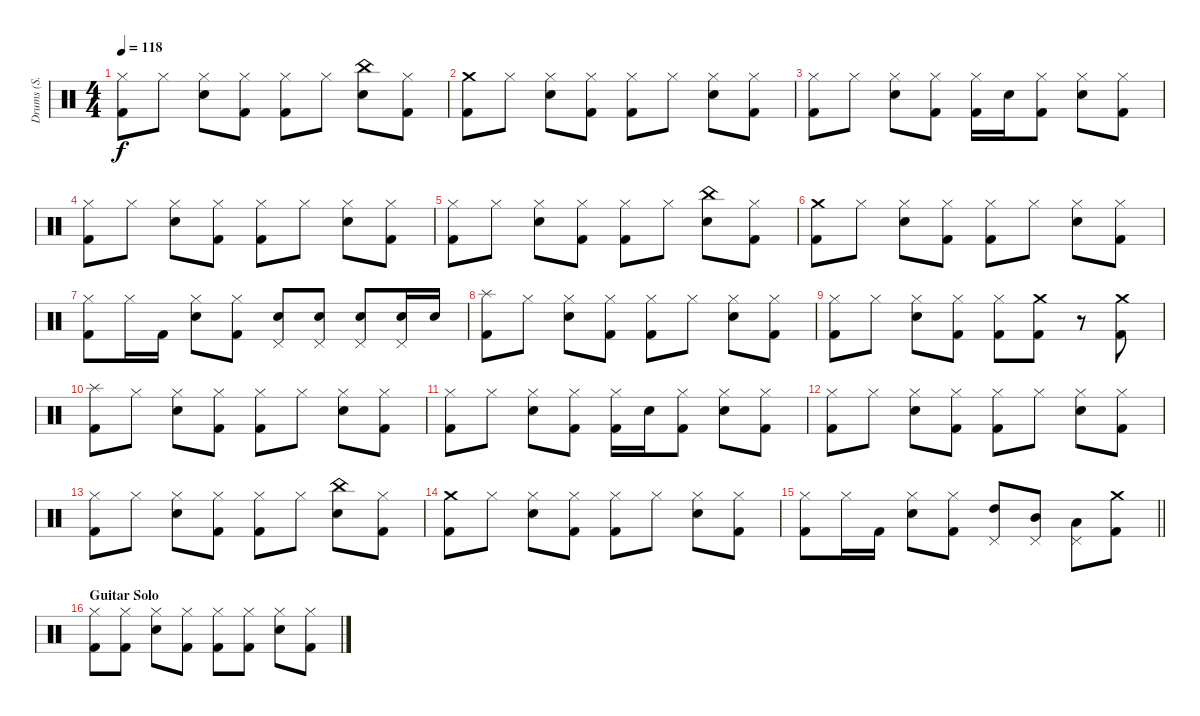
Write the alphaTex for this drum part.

\track ("Drums (S. Rockenfield)" "Drums (S. ") {instrument percussion}
\staff {score}
\articulation defaults
\ts (4 4)
\tempo 118
\clef neutral
\ks c
("Hi-Hat (closed)" "Kick (hit) 2").8{dy f} "Hi-Hat (closed)".8 ("Hi-Hat (closed)" "Snare (hit) 2").8 ("Hi-Hat (closed)" "Kick (hit) 2").8 ("Hi-Hat (closed)" "Kick (hit) 2").8 "Hi-Hat (closed)".8 ("China (hit)" "Snare (hit) 2").8 ("Hi-Hat (closed)" "Kick (hit) 2").8 |
("Crash medium (hit)" "Kick (hit) 2").8 "Hi-Hat (closed)".8 ("Hi-Hat (closed)" "Snare (hit) 2").8 ("Hi-Hat (closed)" "Kick (hit) 2").8 ("Hi-Hat (closed)" "Kick (hit) 2").8 "Hi-Hat (closed)".8 ("Hi-Hat (closed)" "Snare (hit) 2").8 ("Hi-Hat (closed)" "Kick (hit) 2").8 |
("Hi-Hat (closed)" "Kick (hit) 2").8 "Hi-Hat (closed)".8 ("Hi-Hat (closed)" "Snare (hit) 2").8 ("Hi-Hat (closed)" "Kick (hit) 2").8 ("Hi-Hat (closed)" "Kick (hit) 2").16 "Snare (hit) 2".16 ("Hi-Hat (closed)" "Kick (hit) 2").8 ("Hi-Hat (closed)" "Snare (hit) 2").8 ("Hi-Hat (closed)" "Kick (hit) 2").8 |
("Hi-Hat (closed)" "Kick (hit) 2").8 "Hi-Hat (closed)".8 ("Hi-Hat (closed)" "Snare (hit) 2").8 ("Hi-Hat (closed)" "Kick (hit) 2").8 ("Hi-Hat (closed)" "Kick (hit) 2").8 "Hi-Hat (closed)".8 ("Hi-Hat (closed)" "Snare (hit) 2").8 ("Hi-Hat (closed)" "Kick (hit) 2").8 |
("Hi-Hat (closed)" "Kick (hit) 2").8 "Hi-Hat (closed)".8 ("Hi-Hat (closed)" "Snare (hit) 2").8 ("Hi-Hat (closed)" "Kick (hit) 2").8 ("Hi-Hat (closed)" "Kick (hit) 2").8 "Hi-Hat (closed)".8 ("China (hit)" "Snare (hit) 2").8 ("Hi-Hat (closed)" "Kick (hit) 2").8 |
("Crash medium (hit)" "Kick (hit) 2").8 "Hi-Hat (closed)".8 ("Hi-Hat (closed)" "Snare (hit) 2").8 ("Hi-Hat (closed)" "Kick (hit) 2").8 ("Hi-Hat (closed)" "Kick (hit) 2").8 "Hi-Hat (closed)".8 ("Hi-Hat (closed)" "Snare (hit) 2").8 ("Hi-Hat (closed)" "Kick (hit) 2").8 |
("Hi-Hat (closed)" "Kick (hit) 2").8 "Hi-Hat (closed)".16 "Kick (hit) 2".16 ("Hi-Hat (closed)" "Snare (hit) 2").8 ("Hi-Hat (closed)" "Kick (hit) 2").8 ("Pedal Hi-Hat (hit)" "Snare (hit) 2").8 ("Pedal Hi-Hat (hit)" "Snare (hit) 2").8 ("Pedal Hi-Hat (hit)" "Snare (hit) 2").8 ("Pedal Hi-Hat (hit)" "Snare (hit) 2").16 "Snare (hit) 2".16 |
("Splash (hit)" "Kick (hit) 2").8 "Hi-Hat (closed)".8 ("Hi-Hat (closed)" "Snare (hit) 2").8 ("Hi-Hat (closed)" "Kick (hit) 2").8 ("Hi-Hat (closed)" "Kick (hit) 2").8 "Hi-Hat (closed)".8 ("Hi-Hat (closed)" "Snare (hit) 2").8 ("Hi-Hat (closed)" "Kick (hit) 2").8 |
("Hi-Hat (closed)" "Kick (hit) 2").8 "Hi-Hat (closed)".8 ("Hi-Hat (closed)" "Snare (hit) 2").8 ("Hi-Hat (closed)" "Kick (hit) 2").8 ("Hi-Hat (closed)" "Kick (hit) 2").8 ("Crash medium (hit)" "Kick (hit) 2").8 r.8 ("Crash medium (hit)" "Kick (hit) 2").8 |
("Splash (hit)" "Kick (hit) 2").8 "Hi-Hat (closed)".8 ("Hi-Hat (closed)" "Snare (hit) 2").8 ("Hi-Hat (closed)" "Kick (hit) 2").8 ("Hi-Hat (closed)" "Kick (hit) 2").8 "Hi-Hat (closed)".8 ("Hi-Hat (closed)" "Snare (hit) 2").8 ("Hi-Hat (closed)" "Kick (hit) 2").8 |
("Hi-Hat (closed)" "Kick (hit) 2").8 "Hi-Hat (closed)".8 ("Hi-Hat (closed)" "Snare (hit) 2").8 ("Hi-Hat (closed)" "Kick (hit) 2").8 ("Hi-Hat (closed)" "Kick (hit) 2").16 "Snare (hit) 2".16 ("Hi-Hat (closed)" "Kick (hit) 2").8 ("Hi-Hat (closed)" "Snare (hit) 2").8 ("Hi-Hat (closed)" "Kick (hit) 2").8 |
("Hi-Hat (closed)" "Kick (hit) 2").8 "Hi-Hat (closed)".8 ("Hi-Hat (closed)" "Snare (hit) 2").8 ("Hi-Hat (closed)" "Kick (hit) 2").8 ("Hi-Hat (closed)" "Kick (hit) 2").8 "Hi-Hat (closed)".8 ("Hi-Hat (closed)" "Snare (hit) 2").8 ("Hi-Hat (closed)" "Kick (hit) 2").8 |
("Hi-Hat (closed)" "Kick (hit) 2").8 "Hi-Hat (closed)".8 ("Hi-Hat (closed)" "Snare (hit) 2").8 ("Hi-Hat (closed)" "Kick (hit) 2").8 ("Hi-Hat (closed)" "Kick (hit) 2").8 "Hi-Hat (closed)".8 ("China (hit)" "Snare (hit) 2").8 ("Hi-Hat (closed)" "Kick (hit) 2").8 |
("Crash medium (hit)" "Kick (hit) 2").8 "Hi-Hat (closed)".8 ("Hi-Hat (closed)" "Snare (hit) 2").8 ("Hi-Hat (closed)" "Kick (hit) 2").8 ("Hi-Hat (closed)" "Kick (hit) 2").8 "Hi-Hat (closed)".8 ("Hi-Hat (closed)" "Snare (hit) 2").8 ("Hi-Hat (closed)" "Kick (hit) 2").8 |
\barLineRight lightlight
("Hi-Hat (closed)" "Kick (hit) 2").8 "Hi-Hat (closed)".16 "Kick (hit) 2".16 ("Hi-Hat (closed)" "Snare (hit) 2").8 ("Hi-Hat (closed)" "Kick (hit) 2").8 ("Pedal Hi-Hat (hit)" "High Tom (hit)").8 ("Pedal Hi-Hat (hit)" "Mid Tom (hit)").8 ("Pedal Hi-Hat (hit)" "Low Tom (hit)").8 ("Crash medium (hit)" "Kick (hit) 2").8 |
\section ("" "Guitar Solo")
("Hi-Hat (closed)" "Kick (hit) 2").8 ("Hi-Hat (closed)" "Kick (hit) 2").8 ("Hi-Hat (closed)" "Snare (hit) 2").8 ("Hi-Hat (closed)" "Kick (hit) 2").8 ("Hi-Hat (closed)" "Kick (hit) 2").8 ("Hi-Hat (closed)" "Kick (hit) 2").8 ("Hi-Hat (closed)" "Snare (hit) 2").8 ("Hi-Hat (closed)" "Kick (hit) 2").8
